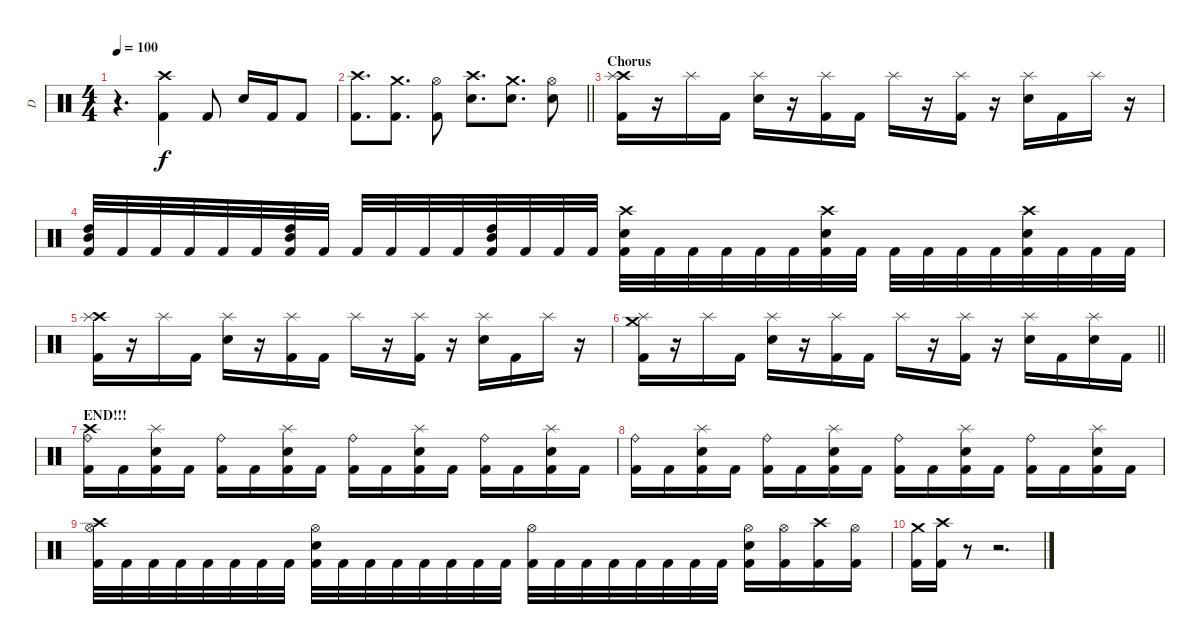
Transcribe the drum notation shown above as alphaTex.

\track ("D" "D") {instrument percussion}
\staff {score}
\articulation defaults
\ts (4 4)
\tempo 100
\clef neutral
\ks c
r.4{d dy f} ("Crash high (hit)" "Kick (hit) 2").4 "Kick (hit) 2".8 "Electric Snare (hit)".16 "Kick (hit) 2".16 "Kick (hit) 2".8 |
\barLineRight lightlight
("Crash high (hit)" "Kick (hit) 2").8{d} ("Crash medium (hit)" "Kick (hit) 2").8{d} ("Hi-Hat (open)" "Kick (hit) 2").8 ("Crash high (hit)" "Electric Snare (hit)").8{d} ("Crash medium (hit)" "Electric Snare (hit)").8{d} ("Hi-Hat (open)" "Electric Snare (hit)").8 |
\section ("" "Chorus")
("Crash high (hit)" "Kick (hit) 2" "Splash (hit)").16 r.16 "Splash (hit)".16 "Kick (hit) 2".16 ("Electric Snare (hit)" "Splash (hit)").16 r.16 ("Kick (hit) 2" "Splash (hit)").16 "Kick (hit) 2".16 "Splash (hit)".16 r.16 ("Kick (hit) 2" "Splash (hit)").16 r.16 ("Electric Snare (hit)" "Splash (hit)").16 "Kick (hit) 2".16 "Splash (hit)".16 r.16 |
("Mid Tom (hit)" "High Tom (hit)" "Kick (hit) 2").32 "Kick (hit) 2".32 "Kick (hit) 2".32 "Kick (hit) 2".32 "Kick (hit) 2".32 "Kick (hit) 2".32 ("Mid Tom (hit)" "High Tom (hit)" "Kick (hit) 2").32 "Kick (hit) 2".32 "Kick (hit) 2".32 "Kick (hit) 2".32 "Kick (hit) 2".32 "Kick (hit) 2".32 ("Mid Tom (hit)" "High Tom (hit)" "Kick (hit) 2").32 "Kick (hit) 2".32 "Kick (hit) 2".32 "Kick (hit) 2".32 ("Crash high (hit)" "Electric Snare (hit)" "Kick (hit) 2").32 "Kick (hit) 2".32 "Kick (hit) 2".32 "Kick (hit) 2".32 "Kick (hit) 2".32 "Kick (hit) 2".32 ("Crash high (hit)" "Electric Snare (hit)" "Kick (hit) 2").32 "Kick (hit) 2".32 "Kick (hit) 2".32 "Kick (hit) 2".32 "Kick (hit) 2".32 "Kick (hit) 2".32 ("Crash high (hit)" "Electric Snare (hit)" "Kick (hit) 2").32 "Kick (hit) 2".32 "Kick (hit) 2".32 "Kick (hit) 2".32 |
("Crash high (hit)" "Kick (hit) 2" "Splash (hit)").16 r.16 "Splash (hit)".16 "Kick (hit) 2".16 ("Electric Snare (hit)" "Splash (hit)").16 r.16 ("Kick (hit) 2" "Splash (hit)").16 "Kick (hit) 2".16 "Splash (hit)".16 r.16 ("Kick (hit) 2" "Splash (hit)").16 r.16 ("Electric Snare (hit)" "Splash (hit)").16 "Kick (hit) 2".16 "Splash (hit)".16 r.16 |
\barLineRight lightlight
("Crash medium (hit)" "Kick (hit) 2" "Splash (hit)").16 r.16 "Splash (hit)".16 "Kick (hit) 2".16 ("Electric Snare (hit)" "Splash (hit)").16 r.16 ("Kick (hit) 2" "Splash (hit)").16 "Kick (hit) 2".16 "Splash (hit)".16 r.16 ("Kick (hit) 2" "Splash (hit)").16 r.16 ("Electric Snare (hit)" "Splash (hit)").16 "Kick (hit) 2".16 ("Electric Snare (hit)" "Splash (hit)").16 "Kick (hit) 2".16 |
\section ("" "END!!!")
("Crash high (hit)" "Kick (hit) 2" "Ride (bell)").16 "Kick (hit) 2".16 ("Electric Snare (hit)" "Kick (hit) 2" "Splash (hit)").16 "Kick (hit) 2".16 ("Kick (hit) 2" "Ride (bell)").16 "Kick (hit) 2".16 ("Electric Snare (hit)" "Kick (hit) 2" "Splash (hit)").16 "Kick (hit) 2".16 ("Kick (hit) 2" "Ride (bell)").16 "Kick (hit) 2".16 ("Electric Snare (hit)" "Kick (hit) 2" "Splash (hit)").16 "Kick (hit) 2".16 ("Kick (hit) 2" "Ride (bell)").16 "Kick (hit) 2".16 ("Electric Snare (hit)" "Kick (hit) 2" "Splash (hit)").16 "Kick (hit) 2".16 |
("Kick (hit) 2" "Ride (bell)").16 "Kick (hit) 2".16 ("Electric Snare (hit)" "Kick (hit) 2" "Splash (hit)").16 "Kick (hit) 2".16 ("Kick (hit) 2" "Ride (bell)").16 "Kick (hit) 2".16 ("Electric Snare (hit)" "Kick (hit) 2" "Splash (hit)").16 "Kick (hit) 2".16 ("Kick (hit) 2" "Ride (bell)").16 "Kick (hit) 2".16 ("Electric Snare (hit)" "Kick (hit) 2" "Splash (hit)").16 "Kick (hit) 2".16 ("Kick (hit) 2" "Ride (bell)").16 "Kick (hit) 2".16 ("Electric Snare (hit)" "Kick (hit) 2" "Splash (hit)").16 "Kick (hit) 2".16 |
("Crash high (hit)" "Kick (hit) 2" "Hi-Hat (open)").32 "Kick (hit) 2".32 "Kick (hit) 2".32 "Kick (hit) 2".32 "Kick (hit) 2".32 "Kick (hit) 2".32 "Kick (hit) 2".32 "Kick (hit) 2".32 ("Electric Snare (hit)" "Kick (hit) 2" "Hi-Hat (open)").32 "Kick (hit) 2".32 "Kick (hit) 2".32 "Kick (hit) 2".32 "Kick (hit) 2".32 "Kick (hit) 2".32 "Kick (hit) 2".32 "Kick (hit) 2".32 ("Kick (hit) 2" "Hi-Hat (open)").32 "Kick (hit) 2".32 "Kick (hit) 2".32 "Kick (hit) 2".32 "Kick (hit) 2".32 "Kick (hit) 2".32 "Kick (hit) 2".32 "Kick (hit) 2".32 ("Electric Snare (hit)" "Kick (hit) 2" "Hi-Hat (open)").16 ("Hi-Hat (open)" "Kick (hit) 2").16 ("Crash high (hit)" "Kick (hit) 2").16 ("Hi-Hat (open)" "Kick (hit) 2").16 |
("Crash medium (hit)" "Kick (hit) 2").16 ("Crash high (hit)" "Kick (hit) 2").16 r.8 r.2{d}
